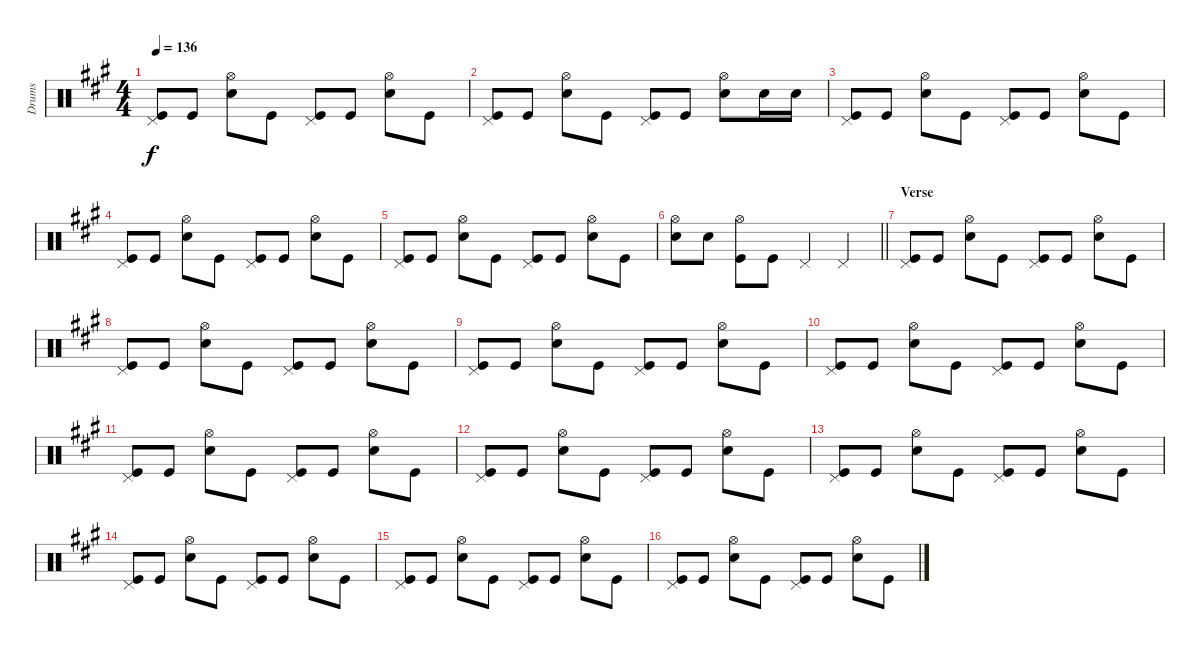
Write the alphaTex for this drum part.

\track ("Drums" "Drums") {instrument percussion}
\staff {score}
\articulation defaults
\ts (4 4)
\tempo 136
\clef neutral
\ks a
("Pedal Hi-Hat (hit)" "Kick (hit)").8{dy f} "Kick (hit)".8 ("Hi-Hat (open)" "Snare (hit) 2").8 "Kick (hit)".8 ("Pedal Hi-Hat (hit)" "Kick (hit)").8 "Kick (hit)".8 ("Hi-Hat (open)" "Snare (hit) 2").8 "Kick (hit)".8 |
("Pedal Hi-Hat (hit)" "Kick (hit)").8 "Kick (hit)".8 ("Hi-Hat (open)" "Snare (hit) 2").8 "Kick (hit)".8 ("Pedal Hi-Hat (hit)" "Kick (hit)").8 "Kick (hit)".8 ("Hi-Hat (open)" "Snare (hit) 2").8 "Snare (hit) 2".16 "Snare (hit) 2".16 |
("Pedal Hi-Hat (hit)" "Kick (hit)").8 "Kick (hit)".8 ("Hi-Hat (open)" "Snare (hit) 2").8 "Kick (hit)".8 ("Pedal Hi-Hat (hit)" "Kick (hit)").8 "Kick (hit)".8 ("Hi-Hat (open)" "Snare (hit) 2").8 "Kick (hit)".8 |
("Pedal Hi-Hat (hit)" "Kick (hit)").8 "Kick (hit)".8 ("Hi-Hat (open)" "Snare (hit) 2").8 "Kick (hit)".8 ("Pedal Hi-Hat (hit)" "Kick (hit)").8 "Kick (hit)".8 ("Hi-Hat (open)" "Snare (hit) 2").8 "Kick (hit)".8 |
("Pedal Hi-Hat (hit)" "Kick (hit)").8 "Kick (hit)".8 ("Hi-Hat (open)" "Snare (hit) 2").8 "Kick (hit)".8 ("Pedal Hi-Hat (hit)" "Kick (hit)").8 "Kick (hit)".8 ("Hi-Hat (open)" "Snare (hit) 2").8 "Kick (hit)".8 |
\barLineRight lightlight
("Hi-Hat (open)" "Snare (hit) 2").8 "Snare (hit) 2".8 ("Hi-Hat (open)" "Kick (hit)").8 "Kick (hit)".8 "Pedal Hi-Hat (hit)".4 "Pedal Hi-Hat (hit)".4 |
\section ("" "Verse")
("Pedal Hi-Hat (hit)" "Kick (hit)").8 "Kick (hit)".8 ("Hi-Hat (open)" "Snare (hit) 2").8 "Kick (hit)".8 ("Pedal Hi-Hat (hit)" "Kick (hit)").8 "Kick (hit)".8 ("Hi-Hat (open)" "Snare (hit) 2").8 "Kick (hit)".8 |
("Pedal Hi-Hat (hit)" "Kick (hit)").8 "Kick (hit)".8 ("Hi-Hat (open)" "Snare (hit) 2").8 "Kick (hit)".8 ("Pedal Hi-Hat (hit)" "Kick (hit)").8 "Kick (hit)".8 ("Hi-Hat (open)" "Snare (hit) 2").8 "Kick (hit)".8 |
("Pedal Hi-Hat (hit)" "Kick (hit)").8 "Kick (hit)".8 ("Hi-Hat (open)" "Snare (hit) 2").8 "Kick (hit)".8 ("Pedal Hi-Hat (hit)" "Kick (hit)").8 "Kick (hit)".8 ("Hi-Hat (open)" "Snare (hit) 2").8 "Kick (hit)".8 |
("Pedal Hi-Hat (hit)" "Kick (hit)").8 "Kick (hit)".8 ("Hi-Hat (open)" "Snare (hit) 2").8 "Kick (hit)".8 ("Pedal Hi-Hat (hit)" "Kick (hit)").8 "Kick (hit)".8 ("Hi-Hat (open)" "Snare (hit) 2").8 "Kick (hit)".8 |
("Pedal Hi-Hat (hit)" "Kick (hit)").8 "Kick (hit)".8 ("Hi-Hat (open)" "Snare (hit) 2").8 "Kick (hit)".8 ("Pedal Hi-Hat (hit)" "Kick (hit)").8 "Kick (hit)".8 ("Hi-Hat (open)" "Snare (hit) 2").8 "Kick (hit)".8 |
("Pedal Hi-Hat (hit)" "Kick (hit)").8 "Kick (hit)".8 ("Hi-Hat (open)" "Snare (hit) 2").8 "Kick (hit)".8 ("Pedal Hi-Hat (hit)" "Kick (hit)").8 "Kick (hit)".8 ("Hi-Hat (open)" "Snare (hit) 2").8 "Kick (hit)".8 |
("Pedal Hi-Hat (hit)" "Kick (hit)").8 "Kick (hit)".8 ("Hi-Hat (open)" "Snare (hit) 2").8 "Kick (hit)".8 ("Pedal Hi-Hat (hit)" "Kick (hit)").8 "Kick (hit)".8 ("Hi-Hat (open)" "Snare (hit) 2").8 "Kick (hit)".8 |
("Pedal Hi-Hat (hit)" "Kick (hit)").8 "Kick (hit)".8 ("Hi-Hat (open)" "Snare (hit) 2").8 "Kick (hit)".8 ("Pedal Hi-Hat (hit)" "Kick (hit)").8 "Kick (hit)".8 ("Hi-Hat (open)" "Snare (hit) 2").8 "Kick (hit)".8 |
("Pedal Hi-Hat (hit)" "Kick (hit)").8 "Kick (hit)".8 ("Hi-Hat (open)" "Snare (hit) 2").8 "Kick (hit)".8 ("Pedal Hi-Hat (hit)" "Kick (hit)").8 "Kick (hit)".8 ("Hi-Hat (open)" "Snare (hit) 2").8 "Kick (hit)".8 |
("Pedal Hi-Hat (hit)" "Kick (hit)").8 "Kick (hit)".8 ("Hi-Hat (open)" "Snare (hit) 2").8 "Kick (hit)".8 ("Pedal Hi-Hat (hit)" "Kick (hit)").8 "Kick (hit)".8 ("Hi-Hat (open)" "Snare (hit) 2").8 "Kick (hit)".8
